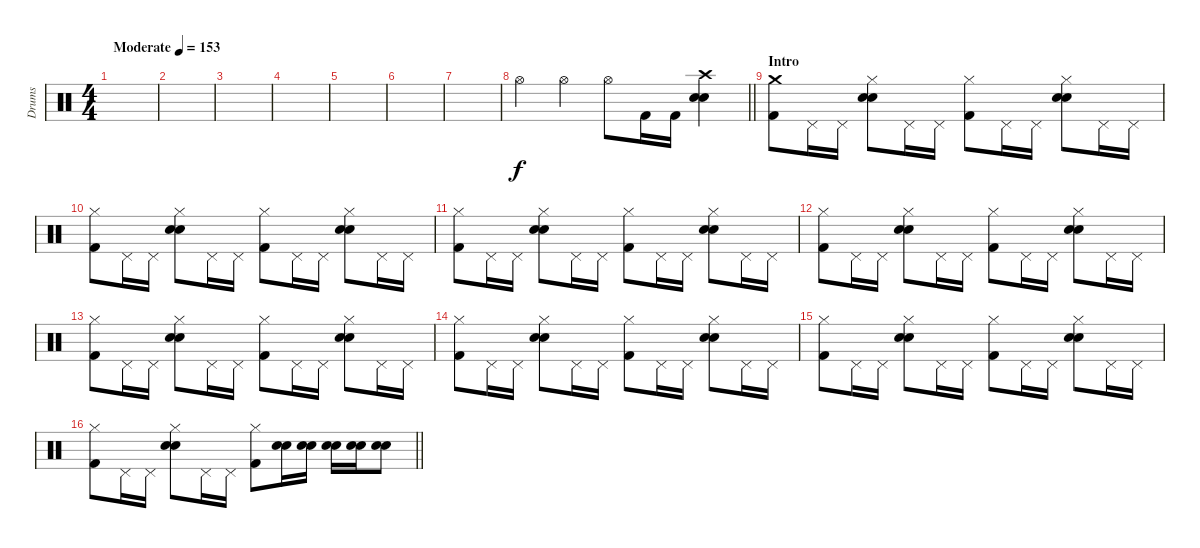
\track ("Drums" "Drums") {instrument percussion}
\staff {score}
\articulation defaults
\ts (4 4)
\tempo (153 "Moderate")
\clef neutral
\ks c
|
|
|
|
|
|
|
\barLineRight lightlight "Hi-Hat (open)".4 "Hi-Hat (open)".4 "Hi-Hat (open)".8 "Kick (hit) 2".16 "Kick (hit) 2".16
("Crash high (hit)" "Electric Snare (hit)" "Snare (hit) 2").4 |
\section ("" "Intro")
("Crash medium (hit)" "Kick (hit) 2").8 "Pedal Hi-Hat (hit)".16 "Pedal Hi-Hat (hit)".16 ("Hi-Hat (closed)" "Electric Snare (hit)" "Snare (hit) 2").8 "Pedal Hi-Hat (hit)".16 "Pedal Hi-Hat (hit)".16 ("Hi-Hat (closed)" "Kick (hit) 2").8 "Pedal Hi-Hat (hit)".16 "Pedal Hi-Hat (hit)".16 ("Hi-Hat (closed)" "Electric Snare (hit)" "Snare (hit) 2").8 "Pedal Hi-Hat (hit)".16 "Pedal Hi-Hat (hit)".16 |
("Hi-Hat (closed)" "Kick (hit) 2").8 "Pedal Hi-Hat (hit)".16 "Pedal Hi-Hat (hit)".16 ("Hi-Hat (closed)" "Electric Snare (hit)" "Snare (hit) 2").8 "Pedal Hi-Hat (hit)".16 "Pedal Hi-Hat (hit)".16 ("Hi-Hat (closed)" "Kick (hit) 2").8 "Pedal Hi-Hat (hit)".16 "Pedal Hi-Hat (hit)".16 ("Hi-Hat (closed)" "Electric Snare (hit)" "Snare (hit) 2").8 "Pedal Hi-Hat (hit)".16 "Pedal Hi-Hat (hit)".16 |
("Hi-Hat (closed)" "Kick (hit) 2").8 "Pedal Hi-Hat (hit)".16 "Pedal Hi-Hat (hit)".16 ("Hi-Hat (closed)" "Electric Snare (hit)" "Snare (hit) 2").8 "Pedal Hi-Hat (hit)".16 "Pedal Hi-Hat (hit)".16 ("Hi-Hat (closed)" "Kick (hit) 2").8 "Pedal Hi-Hat (hit)".16 "Pedal Hi-Hat (hit)".16 ("Hi-Hat (closed)" "Electric Snare (hit)" "Snare (hit) 2").8 "Pedal Hi-Hat (hit)".16 "Pedal Hi-Hat (hit)".16 |
("Hi-Hat (closed)" "Kick (hit) 2").8 "Pedal Hi-Hat (hit)".16 "Pedal Hi-Hat (hit)".16 ("Hi-Hat (closed)" "Electric Snare (hit)" "Snare (hit) 2").8 "Pedal Hi-Hat (hit)".16 "Pedal Hi-Hat (hit)".16 ("Hi-Hat (closed)" "Kick (hit) 2").8 "Pedal Hi-Hat (hit)".16 "Pedal Hi-Hat (hit)".16 ("Hi-Hat (closed)" "Electric Snare (hit)" "Snare (hit) 2").8 "Pedal Hi-Hat (hit)".16 "Pedal Hi-Hat (hit)".16 |
("Hi-Hat (closed)" "Kick (hit) 2").8 "Pedal Hi-Hat (hit)".16 "Pedal Hi-Hat (hit)".16 ("Hi-Hat (closed)" "Electric Snare (hit)" "Snare (hit) 2").8 "Pedal Hi-Hat (hit)".16 "Pedal Hi-Hat (hit)".16 ("Hi-Hat (closed)" "Kick (hit) 2").8 "Pedal Hi-Hat (hit)".16 "Pedal Hi-Hat (hit)".16 ("Hi-Hat (closed)" "Electric Snare (hit)" "Snare (hit) 2").8 "Pedal Hi-Hat (hit)".16 "Pedal Hi-Hat (hit)".16 |
("Hi-Hat (closed)" "Kick (hit) 2").8 "Pedal Hi-Hat (hit)".16 "Pedal Hi-Hat (hit)".16 ("Hi-Hat (closed)" "Electric Snare (hit)" "Snare (hit) 2").8 "Pedal Hi-Hat (hit)".16 "Pedal Hi-Hat (hit)".16 ("Hi-Hat (closed)" "Kick (hit) 2").8 "Pedal Hi-Hat (hit)".16 "Pedal Hi-Hat (hit)".16 ("Hi-Hat (closed)" "Electric Snare (hit)" "Snare (hit) 2").8 "Pedal Hi-Hat (hit)".16 "Pedal Hi-Hat (hit)".16 |
("Hi-Hat (closed)" "Kick (hit) 2").8 "Pedal Hi-Hat (hit)".16 "Pedal Hi-Hat (hit)".16 ("Hi-Hat (closed)" "Electric Snare (hit)" "Snare (hit) 2").8 "Pedal Hi-Hat (hit)".16 "Pedal Hi-Hat (hit)".16 ("Hi-Hat (closed)" "Kick (hit) 2").8 "Pedal Hi-Hat (hit)".16 "Pedal Hi-Hat (hit)".16 ("Hi-Hat (closed)" "Electric Snare (hit)" "Snare (hit) 2").8 "Pedal Hi-Hat (hit)".16 "Pedal Hi-Hat (hit)".16 |
\barLineRight lightlight
("Hi-Hat (closed)" "Kick (hit) 2").8 "Pedal Hi-Hat (hit)".16 "Pedal Hi-Hat (hit)".16 ("Hi-Hat (closed)" "Electric Snare (hit)" "Snare (hit) 2").8 "Pedal Hi-Hat (hit)".16 "Pedal Hi-Hat (hit)".16 ("Hi-Hat (closed)" "Kick (hit) 2").8 ("Electric Snare (hit)" "Snare (hit) 2").16 ("Electric Snare (hit)" "Snare (hit) 2").16 ("Electric Snare (hit)" "Snare (hit) 2").16 ("Electric Snare (hit)" "Snare (hit) 2").16 ("Electric Snare (hit)" "Snare (hit) 2").8
